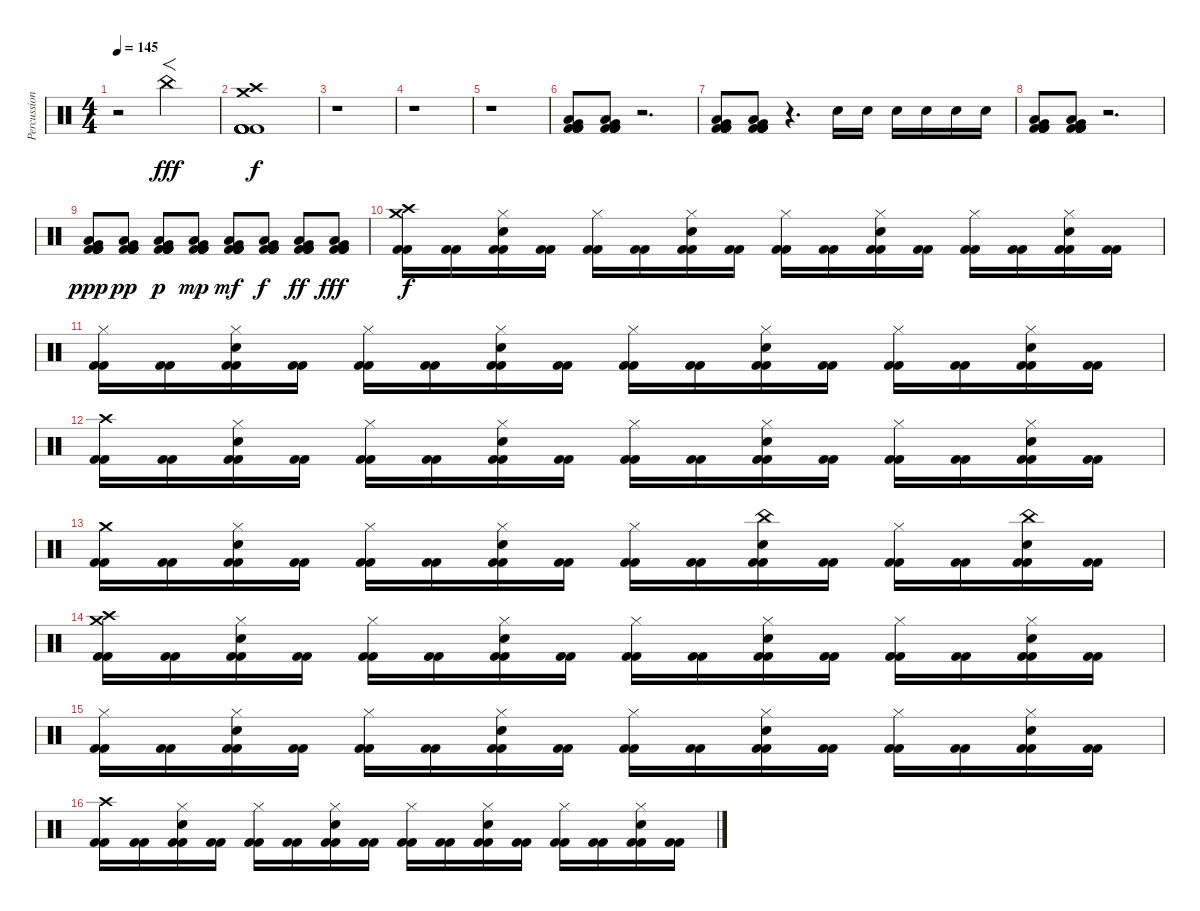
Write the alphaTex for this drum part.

\track ("Percussion" "Percussion") {instrument percussion}
\staff {score}
\articulation defaults
\ts (4 4)
\tempo 145
\clef neutral
\ks c
r.2{dy fff} "China (hit)".2{f volume 16 balance 12} |
("Crash high (hit)" "Crash medium (hit)" "Kick (hit) 2" "Kick (hit) 2" "Kick (hit) 2" "Kick (hit) 2").1{dy f balance 8} |
r.1 |
r.1 |
r.1 |
("Low Tom (hit)" "Very Low Tom (hit)" "Kick (hit) 2" "Kick (hit) 2" "Kick (hit) 2" "Kick (hit) 2").8 ("Low Tom (hit)" "Very Low Tom (hit)" "Kick (hit) 2" "Kick (hit) 2" "Kick (hit) 2" "Kick (hit) 2").8 r.2{d} |
("Low Tom (hit)" "Very Low Tom (hit)" "Kick (hit) 2" "Kick (hit) 2" "Kick (hit) 2" "Kick (hit) 2").8 ("Low Tom (hit)" "Very Low Tom (hit)" "Kick (hit) 2" "Kick (hit) 2" "Kick (hit) 2" "Kick (hit) 2").8 r.4{d} "Snare (hit) 2".16 "Snare (hit) 2".16 "Snare (hit) 2".16 "Snare (hit) 2".16 "Snare (hit) 2".16 "Snare (hit) 2".16 |
("Low Tom (hit)" "Very Low Tom (hit)" "Kick (hit) 2" "Kick (hit) 2" "Kick (hit) 2" "Kick (hit) 2").8 ("Low Tom (hit)" "Very Low Tom (hit)" "Kick (hit) 2" "Kick (hit) 2" "Kick (hit) 2" "Kick (hit) 2").8 r.2{d} |
("Low Tom (hit)" "Very Low Tom (hit)" "Kick (hit) 2" "Kick (hit) 2" "Kick (hit) 2" "Kick (hit) 2").8{dy ppp} ("Low Tom (hit)" "Very Low Tom (hit)" "Kick (hit) 2" "Kick (hit) 2" "Kick (hit) 2" "Kick (hit) 2").8{dy pp} ("Low Tom (hit)" "Very Low Tom (hit)" "Kick (hit) 2" "Kick (hit) 2" "Kick (hit) 2" "Kick (hit) 2").8{dy p} ("Low Tom (hit)" "Very Low Tom (hit)" "Kick (hit) 2" "Kick (hit) 2" "Kick (hit) 2" "Kick (hit) 2").8{dy mp} ("Low Tom (hit)" "Very Low Tom (hit)" "Kick (hit) 2" "Kick (hit) 2" "Kick (hit) 2" "Kick (hit) 2").8{dy mf} ("Low Tom (hit)" "Very Low Tom (hit)" "Kick (hit) 2" "Kick (hit) 2" "Kick (hit) 2" "Kick (hit) 2").8{dy f} ("Low Tom (hit)" "Very Low Tom (hit)" "Kick (hit) 2" "Kick (hit) 2" "Kick (hit) 2" "Kick (hit) 2").8{dy ff} ("Low Tom (hit)" "Very Low Tom (hit)" "Kick (hit) 2" "Kick (hit) 2" "Kick (hit) 2" "Kick (hit) 2").8{dy fff} |
("Crash high (hit)" "Crash medium (hit)" "Kick (hit) 2" "Kick (hit) 2").16{dy f} ("Kick (hit) 2" "Kick (hit) 2").16 ("Hi-Hat (closed)" "Snare (hit) 2" "Kick (hit) 2" "Kick (hit) 2").16 ("Kick (hit) 2" "Kick (hit) 2").16 ("Hi-Hat (closed)" "Kick (hit) 2" "Kick (hit) 2").16 ("Kick (hit) 2" "Kick (hit) 2").16 ("Hi-Hat (closed)" "Snare (hit) 2" "Kick (hit) 2" "Kick (hit) 2").16 ("Kick (hit) 2" "Kick (hit) 2").16 ("Hi-Hat (closed)" "Kick (hit) 2" "Kick (hit) 2").16 ("Kick (hit) 2" "Kick (hit) 2").16 ("Hi-Hat (closed)" "Snare (hit) 2" "Kick (hit) 2" "Kick (hit) 2").16 ("Kick (hit) 2" "Kick (hit) 2").16 ("Hi-Hat (closed)" "Kick (hit) 2" "Kick (hit) 2").16 ("Kick (hit) 2" "Kick (hit) 2").16 ("Hi-Hat (closed)" "Snare (hit) 2" "Kick (hit) 2" "Kick (hit) 2").16 ("Kick (hit) 2" "Kick (hit) 2").16 |
("Hi-Hat (closed)" "Kick (hit) 2" "Kick (hit) 2").16 ("Kick (hit) 2" "Kick (hit) 2").16 ("Hi-Hat (closed)" "Snare (hit) 2" "Kick (hit) 2" "Kick (hit) 2").16 ("Kick (hit) 2" "Kick (hit) 2").16 ("Hi-Hat (closed)" "Kick (hit) 2" "Kick (hit) 2").16 ("Kick (hit) 2" "Kick (hit) 2").16 ("Hi-Hat (closed)" "Snare (hit) 2" "Kick (hit) 2" "Kick (hit) 2").16 ("Kick (hit) 2" "Kick (hit) 2").16 ("Hi-Hat (closed)" "Kick (hit) 2" "Kick (hit) 2").16 ("Kick (hit) 2" "Kick (hit) 2").16 ("Hi-Hat (closed)" "Snare (hit) 2" "Kick (hit) 2" "Kick (hit) 2").16 ("Kick (hit) 2" "Kick (hit) 2").16 ("Hi-Hat (closed)" "Kick (hit) 2" "Kick (hit) 2").16 ("Kick (hit) 2" "Kick (hit) 2").16 ("Hi-Hat (closed)" "Snare (hit) 2" "Kick (hit) 2" "Kick (hit) 2").16 ("Kick (hit) 2" "Kick (hit) 2").16 |
("Crash high (hit)" "Kick (hit) 2" "Kick (hit) 2").16 ("Kick (hit) 2" "Kick (hit) 2").16 ("Hi-Hat (closed)" "Snare (hit) 2" "Kick (hit) 2" "Kick (hit) 2").16 ("Kick (hit) 2" "Kick (hit) 2").16 ("Hi-Hat (closed)" "Kick (hit) 2" "Kick (hit) 2").16 ("Kick (hit) 2" "Kick (hit) 2").16 ("Hi-Hat (closed)" "Snare (hit) 2" "Kick (hit) 2" "Kick (hit) 2").16 ("Kick (hit) 2" "Kick (hit) 2").16 ("Hi-Hat (closed)" "Kick (hit) 2" "Kick (hit) 2").16 ("Kick (hit) 2" "Kick (hit) 2").16 ("Hi-Hat (closed)" "Snare (hit) 2" "Kick (hit) 2" "Kick (hit) 2").16 ("Kick (hit) 2" "Kick (hit) 2").16 ("Hi-Hat (closed)" "Kick (hit) 2" "Kick (hit) 2").16 ("Kick (hit) 2" "Kick (hit) 2").16 ("Hi-Hat (closed)" "Snare (hit) 2" "Kick (hit) 2" "Kick (hit) 2").16 ("Kick (hit) 2" "Kick (hit) 2").16 |
("Crash medium (hit)" "Kick (hit) 2" "Kick (hit) 2").16 ("Kick (hit) 2" "Kick (hit) 2").16 ("Hi-Hat (closed)" "Snare (hit) 2" "Kick (hit) 2" "Kick (hit) 2").16 ("Kick (hit) 2" "Kick (hit) 2").16 ("Hi-Hat (closed)" "Kick (hit) 2" "Kick (hit) 2").16 ("Kick (hit) 2" "Kick (hit) 2").16 ("Hi-Hat (closed)" "Snare (hit) 2" "Kick (hit) 2" "Kick (hit) 2").16 ("Kick (hit) 2" "Kick (hit) 2").16 ("Hi-Hat (closed)" "Kick (hit) 2" "Kick (hit) 2").16 ("Kick (hit) 2" "Kick (hit) 2").16 ("China (hit)" "Snare (hit) 2" "Kick (hit) 2" "Kick (hit) 2").16 ("Kick (hit) 2" "Kick (hit) 2").16 ("Hi-Hat (closed)" "Kick (hit) 2" "Kick (hit) 2").16 ("Kick (hit) 2" "Kick (hit) 2").16 ("China (hit)" "Snare (hit) 2" "Kick (hit) 2" "Kick (hit) 2").16 ("Kick (hit) 2" "Kick (hit) 2").16 |
("Crash high (hit)" "Crash medium (hit)" "Kick (hit) 2" "Kick (hit) 2").16 ("Kick (hit) 2" "Kick (hit) 2").16 ("Hi-Hat (closed)" "Snare (hit) 2" "Kick (hit) 2" "Kick (hit) 2").16 ("Kick (hit) 2" "Kick (hit) 2").16 ("Hi-Hat (closed)" "Kick (hit) 2" "Kick (hit) 2").16 ("Kick (hit) 2" "Kick (hit) 2").16 ("Hi-Hat (closed)" "Snare (hit) 2" "Kick (hit) 2" "Kick (hit) 2").16 ("Kick (hit) 2" "Kick (hit) 2").16 ("Hi-Hat (closed)" "Kick (hit) 2" "Kick (hit) 2").16 ("Kick (hit) 2" "Kick (hit) 2").16 ("Hi-Hat (closed)" "Snare (hit) 2" "Kick (hit) 2" "Kick (hit) 2").16 ("Kick (hit) 2" "Kick (hit) 2").16 ("Hi-Hat (closed)" "Kick (hit) 2" "Kick (hit) 2").16 ("Kick (hit) 2" "Kick (hit) 2").16 ("Hi-Hat (closed)" "Snare (hit) 2" "Kick (hit) 2" "Kick (hit) 2").16 ("Kick (hit) 2" "Kick (hit) 2").16 |
("Hi-Hat (closed)" "Kick (hit) 2" "Kick (hit) 2").16 ("Kick (hit) 2" "Kick (hit) 2").16 ("Hi-Hat (closed)" "Snare (hit) 2" "Kick (hit) 2" "Kick (hit) 2").16 ("Kick (hit) 2" "Kick (hit) 2").16 ("Hi-Hat (closed)" "Kick (hit) 2" "Kick (hit) 2").16 ("Kick (hit) 2" "Kick (hit) 2").16 ("Hi-Hat (closed)" "Snare (hit) 2" "Kick (hit) 2" "Kick (hit) 2").16 ("Kick (hit) 2" "Kick (hit) 2").16 ("Hi-Hat (closed)" "Kick (hit) 2" "Kick (hit) 2").16 ("Kick (hit) 2" "Kick (hit) 2").16 ("Hi-Hat (closed)" "Snare (hit) 2" "Kick (hit) 2" "Kick (hit) 2").16 ("Kick (hit) 2" "Kick (hit) 2").16 ("Hi-Hat (closed)" "Kick (hit) 2" "Kick (hit) 2").16 ("Kick (hit) 2" "Kick (hit) 2").16 ("Hi-Hat (closed)" "Snare (hit) 2" "Kick (hit) 2" "Kick (hit) 2").16 ("Kick (hit) 2" "Kick (hit) 2").16 |
("Crash high (hit)" "Kick (hit) 2" "Kick (hit) 2").16 ("Kick (hit) 2" "Kick (hit) 2").16 ("Hi-Hat (closed)" "Snare (hit) 2" "Kick (hit) 2" "Kick (hit) 2").16 ("Kick (hit) 2" "Kick (hit) 2").16 ("Hi-Hat (closed)" "Kick (hit) 2" "Kick (hit) 2").16 ("Kick (hit) 2" "Kick (hit) 2").16 ("Hi-Hat (closed)" "Snare (hit) 2" "Kick (hit) 2" "Kick (hit) 2").16 ("Kick (hit) 2" "Kick (hit) 2").16 ("Hi-Hat (closed)" "Kick (hit) 2" "Kick (hit) 2").16 ("Kick (hit) 2" "Kick (hit) 2").16 ("Hi-Hat (closed)" "Snare (hit) 2" "Kick (hit) 2" "Kick (hit) 2").16 ("Kick (hit) 2" "Kick (hit) 2").16 ("Hi-Hat (closed)" "Kick (hit) 2" "Kick (hit) 2").16 ("Kick (hit) 2" "Kick (hit) 2").16 ("Hi-Hat (closed)" "Snare (hit) 2" "Kick (hit) 2" "Kick (hit) 2").16 ("Kick (hit) 2" "Kick (hit) 2").16
